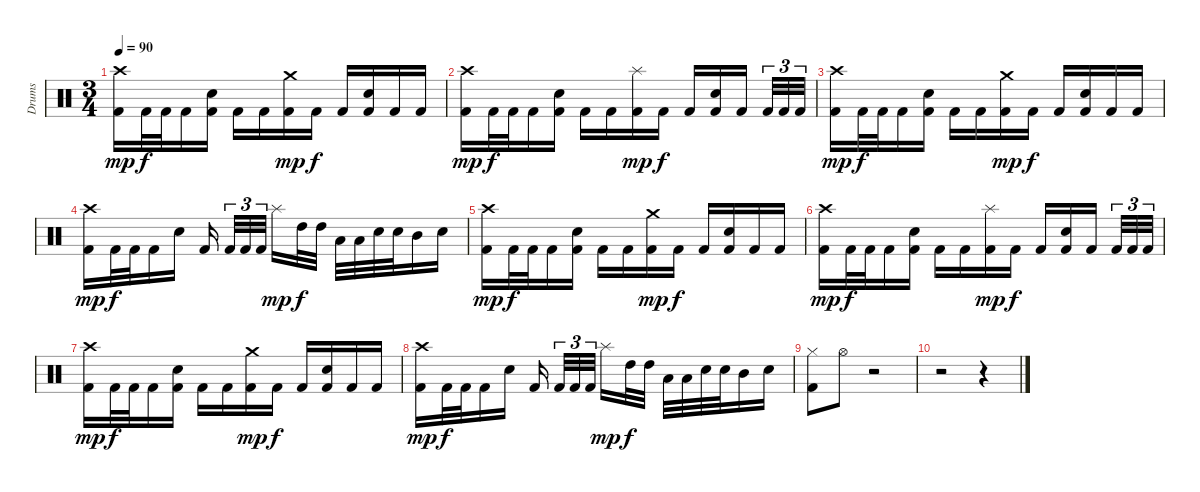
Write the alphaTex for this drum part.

\track ("Drums" "Drums") {instrument percussion}
\staff {score}
\articulation defaults
\ts (3 4)
\tempo 90
\clef neutral
\ks c
("Kick (hit) 2" "Crash high (hit)").16{dy mp} "Kick (hit) 2".32{dy f} "Kick (hit) 2".32 "Kick (hit) 2".16 ("Kick (hit) 2" "Electric Snare (hit)").16 "Kick (hit) 2".16 "Kick (hit) 2".16 ("Kick (hit) 2" "Crash medium (hit)").16{dy mp} "Kick (hit) 2".16{dy f} "Kick (hit) 2".16 ("Kick (hit) 2" "Electric Snare (hit)").16 "Kick (hit) 2".16 "Kick (hit) 2".16 |
("Kick (hit) 2" "Crash high (hit)").16{dy mp} "Kick (hit) 2".32{dy f} "Kick (hit) 2".32 "Kick (hit) 2".16 ("Kick (hit) 2" "Electric Snare (hit)").16 "Kick (hit) 2".16 "Kick (hit) 2".16 ("Kick (hit) 2" "Splash (hit)").16{dy mp} "Kick (hit) 2".16{dy f} "Kick (hit) 2".16 ("Kick (hit) 2" "Electric Snare (hit)").16 "Kick (hit) 2".16 "Kick (hit) 2".32{tu (3 2)} "Kick (hit) 2".32{tu (3 2)} "Kick (hit) 2".32{tu (3 2)} |
("Kick (hit) 2" "Crash high (hit)").16{dy mp} "Kick (hit) 2".32{dy f} "Kick (hit) 2".32 "Kick (hit) 2".16 ("Kick (hit) 2" "Electric Snare (hit)").16 "Kick (hit) 2".16 "Kick (hit) 2".16 ("Kick (hit) 2" "Crash medium (hit)").16{dy mp} "Kick (hit) 2".16{dy f} "Kick (hit) 2".16 ("Kick (hit) 2" "Electric Snare (hit)").16 "Kick (hit) 2".16 "Kick (hit) 2".16 |
("Kick (hit) 2" "Crash high (hit)").16{dy mp} "Kick (hit) 2".32{dy f} "Kick (hit) 2".32 "Kick (hit) 2".16 "Electric Snare (hit)".16 "Kick (hit) 2".16 "Kick (hit) 2".32{tu (3 2)} "Kick (hit) 2".32{tu (3 2)} "Kick (hit) 2".32{tu (3 2)} "Splash (hit)".16{dy mp} "High Tom (hit)".32{dy f} "High Tom (hit)".32 "Low Tom (hit)".32 "Low Tom (hit)".32 "Electric Snare (hit)".32 "Electric Snare (hit)".32 "Mid Tom (hit)".16 "Electric Snare (hit)".16 |
("Kick (hit) 2" "Crash high (hit)").16{dy mp} "Kick (hit) 2".32{dy f} "Kick (hit) 2".32 "Kick (hit) 2".16 ("Kick (hit) 2" "Electric Snare (hit)").16 "Kick (hit) 2".16 "Kick (hit) 2".16 ("Kick (hit) 2" "Crash medium (hit)").16{dy mp} "Kick (hit) 2".16{dy f} "Kick (hit) 2".16 ("Kick (hit) 2" "Electric Snare (hit)").16 "Kick (hit) 2".16 "Kick (hit) 2".16 |
("Kick (hit) 2" "Crash high (hit)").16{dy mp} "Kick (hit) 2".32{dy f} "Kick (hit) 2".32 "Kick (hit) 2".16 ("Kick (hit) 2" "Electric Snare (hit)").16 "Kick (hit) 2".16 "Kick (hit) 2".16 ("Kick (hit) 2" "Splash (hit)").16{dy mp} "Kick (hit) 2".16{dy f} "Kick (hit) 2".16 ("Kick (hit) 2" "Electric Snare (hit)").16 "Kick (hit) 2".16 "Kick (hit) 2".32{tu (3 2)} "Kick (hit) 2".32{tu (3 2)} "Kick (hit) 2".32{tu (3 2)} |
("Kick (hit) 2" "Crash high (hit)").16{dy mp} "Kick (hit) 2".32{dy f} "Kick (hit) 2".32 "Kick (hit) 2".16 ("Kick (hit) 2" "Electric Snare (hit)").16 "Kick (hit) 2".16 "Kick (hit) 2".16 ("Kick (hit) 2" "Crash medium (hit)").16{dy mp} "Kick (hit) 2".16{dy f} "Kick (hit) 2".16 ("Kick (hit) 2" "Electric Snare (hit)").16 "Kick (hit) 2".16 "Kick (hit) 2".16 |
("Kick (hit) 2" "Crash high (hit)").16{dy mp} "Kick (hit) 2".32{dy f} "Kick (hit) 2".32 "Kick (hit) 2".16 "Electric Snare (hit)".16 "Kick (hit) 2".16 "Kick (hit) 2".32{tu (3 2)} "Kick (hit) 2".32{tu (3 2)} "Kick (hit) 2".32{tu (3 2)} "Splash (hit)".16{dy mp} "High Tom (hit)".32{dy f} "High Tom (hit)".32 "Low Tom (hit)".32 "Low Tom (hit)".32 "Electric Snare (hit)".32 "Electric Snare (hit)".32 "Mid Tom (hit)".16 "Electric Snare (hit)".16 |
("Hi-Hat (closed)" "Kick (hit) 2").8 "Hi-Hat (open)".8 r.2 |
r.2 r.4
